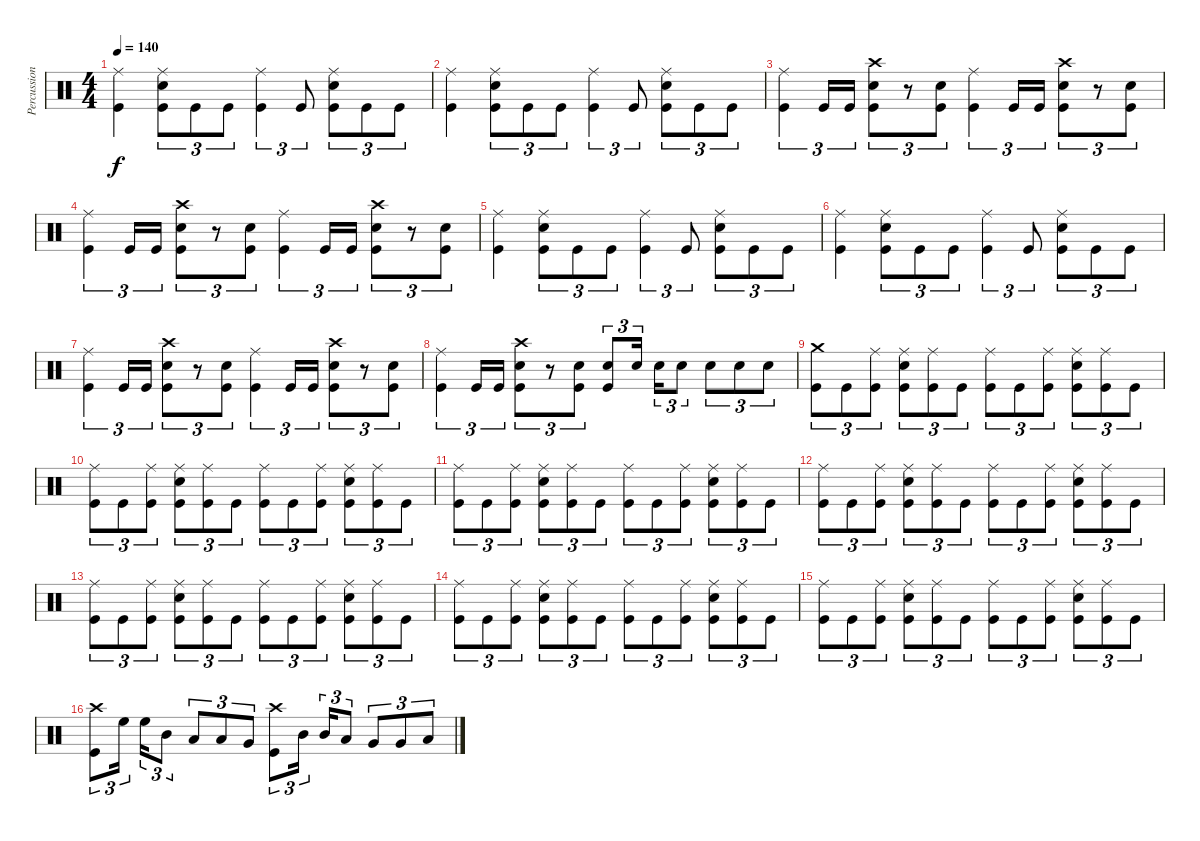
\track ("Percussion" "Percussion") {instrument percussion}
\staff {score}
\articulation defaults
\ts (4 4)
\tempo 140
\clef neutral
\ks c
("Ride (middle)" "Kick (hit)").4{dy f} ("Ride (middle)" "Snare (hit) 2" "Kick (hit)").8{tu (3 2)} "Kick (hit)".8{tu (3 2)} "Kick (hit)".8{tu (3 2)} ("Ride (middle)" "Kick (hit)").4{tu (3 2)} "Kick (hit)".8{tu (3 2)} ("Ride (middle)" "Snare (hit) 2" "Kick (hit)").8{tu (3 2)} "Kick (hit)".8{tu (3 2)} "Kick (hit)".8{tu (3 2)} |
("Ride (middle)" "Kick (hit)").4 ("Ride (middle)" "Snare (hit) 2" "Kick (hit)").8{tu (3 2)} "Kick (hit)".8{tu (3 2)} "Kick (hit)".8{tu (3 2)} ("Ride (middle)" "Kick (hit)").4{tu (3 2)} "Kick (hit)".8{tu (3 2)} ("Ride (middle)" "Snare (hit) 2" "Kick (hit)").8{tu (3 2)} "Kick (hit)".8{tu (3 2)} "Kick (hit)".8{tu (3 2)} |
("Ride (middle)" "Kick (hit)").4{tu (3 2)} "Kick (hit)".16{tu (3 2)} "Kick (hit)".16{tu (3 2)} ("Crash high (hit)" "Snare (hit) 2" "Kick (hit)").8{tu (3 2)} r.8{tu (3 2)} ("Snare (hit) 2" "Kick (hit)").8{tu (3 2)} ("Ride (middle)" "Kick (hit)").4{tu (3 2)} "Kick (hit)".16{tu (3 2)} "Kick (hit)".16{tu (3 2)} ("Crash high (hit)" "Snare (hit) 2" "Kick (hit)").8{tu (3 2)} r.8{tu (3 2)} ("Snare (hit) 2" "Kick (hit)").8{tu (3 2)} |
("Ride (middle)" "Kick (hit)").4{tu (3 2)} "Kick (hit)".16{tu (3 2)} "Kick (hit)".16{tu (3 2)} ("Crash high (hit)" "Snare (hit) 2" "Kick (hit)").8{tu (3 2)} r.8{tu (3 2)} ("Snare (hit) 2" "Kick (hit)").8{tu (3 2)} ("Ride (middle)" "Kick (hit)").4{tu (3 2)} "Kick (hit)".16{tu (3 2)} "Kick (hit)".16{tu (3 2)} ("Crash high (hit)" "Snare (hit) 2" "Kick (hit)").8{tu (3 2)} r.8{tu (3 2)} ("Snare (hit) 2" "Kick (hit)").8{tu (3 2)} |
("Ride (middle)" "Kick (hit)").4 ("Ride (middle)" "Snare (hit) 2" "Kick (hit)").8{tu (3 2)} "Kick (hit)".8{tu (3 2)} "Kick (hit)".8{tu (3 2)} ("Ride (middle)" "Kick (hit)").4{tu (3 2)} "Kick (hit)".8{tu (3 2)} ("Ride (middle)" "Snare (hit) 2" "Kick (hit)").8{tu (3 2)} "Kick (hit)".8{tu (3 2)} "Kick (hit)".8{tu (3 2)} |
("Ride (middle)" "Kick (hit)").4 ("Ride (middle)" "Snare (hit) 2" "Kick (hit)").8{tu (3 2)} "Kick (hit)".8{tu (3 2)} "Kick (hit)".8{tu (3 2)} ("Ride (middle)" "Kick (hit)").4{tu (3 2)} "Kick (hit)".8{tu (3 2)} ("Ride (middle)" "Snare (hit) 2" "Kick (hit)").8{tu (3 2)} "Kick (hit)".8{tu (3 2)} "Kick (hit)".8{tu (3 2)} |
("Ride (middle)" "Kick (hit)").4{tu (3 2)} "Kick (hit)".16{tu (3 2)} "Kick (hit)".16{tu (3 2)} ("Crash high (hit)" "Snare (hit) 2" "Kick (hit)").8{tu (3 2)} r.8{tu (3 2)} ("Snare (hit) 2" "Kick (hit)").8{tu (3 2)} ("Ride (middle)" "Kick (hit)").4{tu (3 2)} "Kick (hit)".16{tu (3 2)} "Kick (hit)".16{tu (3 2)} ("Crash high (hit)" "Snare (hit) 2" "Kick (hit)").8{tu (3 2)} r.8{tu (3 2)} ("Snare (hit) 2" "Kick (hit)").8{tu (3 2)} |
("Ride (middle)" "Kick (hit)").4{tu (3 2)} "Kick (hit)".16{tu (3 2)} "Kick (hit)".16{tu (3 2)} ("Crash high (hit)" "Snare (hit) 2" "Kick (hit)").8{tu (3 2)} r.8{tu (3 2)} ("Snare (hit) 2" "Kick (hit)").8{tu (3 2)} ("Snare (hit) 2" "Kick (hit)").8{tu (3 2)} "Snare (hit) 2".16{tu (3 2) beam splitsecondary} "Snare (hit) 2".16{tu (3 2)} "Snare (hit) 2".8{tu (3 2)} "Snare (hit) 2".8{tu (3 2)} "Snare (hit) 2".8{tu (3 2)} "Snare (hit) 2".8{tu (3 2)} |
("Crash medium (hit)" "Kick (hit)").8{tu (3 2)} "Kick (hit)".8{tu (3 2)} ("Ride (middle)" "Kick (hit)").8{tu (3 2)} ("Ride (middle)" "Snare (hit) 2" "Kick (hit)").8{tu (3 2)} ("Ride (middle)" "Kick (hit)").8{tu (3 2)} "Kick (hit)".8{tu (3 2)} ("Ride (middle)" "Kick (hit)").8{tu (3 2)} "Kick (hit)".8{tu (3 2)} ("Ride (middle)" "Kick (hit)").8{tu (3 2)} ("Ride (middle)" "Snare (hit) 2" "Kick (hit)").8{tu (3 2)} ("Ride (middle)" "Kick (hit)").8{tu (3 2)} "Kick (hit)".8{tu (3 2)} |
("Ride (middle)" "Kick (hit)").8{tu (3 2)} "Kick (hit)".8{tu (3 2)} ("Ride (middle)" "Kick (hit)").8{tu (3 2)} ("Ride (middle)" "Snare (hit) 2" "Kick (hit)").8{tu (3 2)} ("Ride (middle)" "Kick (hit)").8{tu (3 2)} "Kick (hit)".8{tu (3 2)} ("Ride (middle)" "Kick (hit)").8{tu (3 2)} "Kick (hit)".8{tu (3 2)} ("Ride (middle)" "Kick (hit)").8{tu (3 2)} ("Ride (middle)" "Snare (hit) 2" "Kick (hit)").8{tu (3 2)} ("Ride (middle)" "Kick (hit)").8{tu (3 2)} "Kick (hit)".8{tu (3 2)} |
("Ride (middle)" "Kick (hit)").8{tu (3 2)} "Kick (hit)".8{tu (3 2)} ("Ride (middle)" "Kick (hit)").8{tu (3 2)} ("Ride (middle)" "Snare (hit) 2" "Kick (hit)").8{tu (3 2)} ("Ride (middle)" "Kick (hit)").8{tu (3 2)} "Kick (hit)".8{tu (3 2)} ("Ride (middle)" "Kick (hit)").8{tu (3 2)} "Kick (hit)".8{tu (3 2)} ("Ride (middle)" "Kick (hit)").8{tu (3 2)} ("Ride (middle)" "Snare (hit) 2" "Kick (hit)").8{tu (3 2)} ("Ride (middle)" "Kick (hit)").8{tu (3 2)} "Kick (hit)".8{tu (3 2)} |
("Ride (middle)" "Kick (hit)").8{tu (3 2)} "Kick (hit)".8{tu (3 2)} ("Ride (middle)" "Kick (hit)").8{tu (3 2)} ("Ride (middle)" "Snare (hit) 2" "Kick (hit)").8{tu (3 2)} ("Ride (middle)" "Kick (hit)").8{tu (3 2)} "Kick (hit)".8{tu (3 2)} ("Ride (middle)" "Kick (hit)").8{tu (3 2)} "Kick (hit)".8{tu (3 2)} ("Ride (middle)" "Kick (hit)").8{tu (3 2)} ("Ride (middle)" "Snare (hit) 2" "Kick (hit)").8{tu (3 2)} ("Ride (middle)" "Kick (hit)").8{tu (3 2)} "Kick (hit)".8{tu (3 2)} |
("Ride (middle)" "Kick (hit)").8{tu (3 2)} "Kick (hit)".8{tu (3 2)} ("Ride (middle)" "Kick (hit)").8{tu (3 2)} ("Ride (middle)" "Snare (hit) 2" "Kick (hit)").8{tu (3 2)} ("Ride (middle)" "Kick (hit)").8{tu (3 2)} "Kick (hit)".8{tu (3 2)} ("Ride (middle)" "Kick (hit)").8{tu (3 2)} "Kick (hit)".8{tu (3 2)} ("Ride (middle)" "Kick (hit)").8{tu (3 2)} ("Ride (middle)" "Snare (hit) 2" "Kick (hit)").8{tu (3 2)} ("Ride (middle)" "Kick (hit)").8{tu (3 2)} "Kick (hit)".8{tu (3 2)} |
("Ride (middle)" "Kick (hit)").8{tu (3 2)} "Kick (hit)".8{tu (3 2)} ("Ride (middle)" "Kick (hit)").8{tu (3 2)} ("Ride (middle)" "Snare (hit) 2" "Kick (hit)").8{tu (3 2)} ("Ride (middle)" "Kick (hit)").8{tu (3 2)} "Kick (hit)".8{tu (3 2)} ("Ride (middle)" "Kick (hit)").8{tu (3 2)} "Kick (hit)".8{tu (3 2)} ("Ride (middle)" "Kick (hit)").8{tu (3 2)} ("Ride (middle)" "Snare (hit) 2" "Kick (hit)").8{tu (3 2)} ("Ride (middle)" "Kick (hit)").8{tu (3 2)} "Kick (hit)".8{tu (3 2)} |
("Ride (middle)" "Kick (hit)").8{tu (3 2)} "Kick (hit)".8{tu (3 2)} ("Ride (middle)" "Kick (hit)").8{tu (3 2)} ("Ride (middle)" "Snare (hit) 2" "Kick (hit)").8{tu (3 2)} ("Ride (middle)" "Kick (hit)").8{tu (3 2)} "Kick (hit)".8{tu (3 2)} ("Ride (middle)" "Kick (hit)").8{tu (3 2)} "Kick (hit)".8{tu (3 2)} ("Ride (middle)" "Kick (hit)").8{tu (3 2)} ("Ride (middle)" "Snare (hit) 2" "Kick (hit)").8{tu (3 2)} ("Ride (middle)" "Kick (hit)").8{tu (3 2)} "Kick (hit)".8{tu (3 2)} |
("Crash high (hit)" "Kick (hit)").8{tu (3 2)} "High Floor Tom (hit)".16{tu (3 2) beam splitsecondary} "High Floor Tom (hit)".16{tu (3 2)} "Mid Tom (hit)".8{tu (3 2)} "Low Tom (hit)".8{tu (3 2)} "Low Tom (hit)".8{tu (3 2)} "Very Low Tom (hit)".8{tu (3 2)} ("Crash high (hit)" "Kick (hit)").8{tu (3 2)} "Mid Tom (hit)".16{tu (3 2) beam splitsecondary} "Mid Tom (hit)".16{tu (3 2)} "Low Tom (hit)".8{tu (3 2)} "Very Low Tom (hit)".8{tu (3 2)} "Very Low Tom (hit)".8{tu (3 2)} "Low Floor Tom (hit)".8{tu (3 2)}
